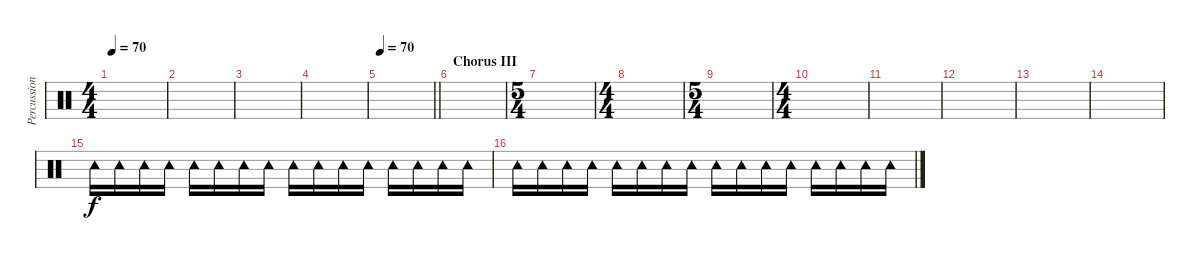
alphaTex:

\track ("Percussion" "Percussion") {instrument percussion}
\staff {score}
\articulation defaults
\ts (4 4)
\tempo 70
\clef neutral
\ks c
|
|
|
|
\tempo 70
\barLineRight lightlight
|
\section ("" "Chorus III")
|
\ts (5 4)
|
\ts (4 4)
|
\ts (5 4)
|
\ts (4 4)
|
|
|
|
|
"Tambourine (hit)".16 "Tambourine (hit)".16 "Tambourine (hit)".16 "Tambourine (hit)".16 "Tambourine (hit)".16 "Tambourine (hit)".16 "Tambourine (hit)".16 "Tambourine (hit)".16 "Tambourine (hit)".16 "Tambourine (hit)".16 "Tambourine (hit)".16 "Tambourine (hit)".16 "Tambourine (hit)".16 "Tambourine (hit)".16 "Tambourine (hit)".16 "Tambourine (hit)".16 |
"Tambourine (hit)".16 "Tambourine (hit)".16 "Tambourine (hit)".16 "Tambourine (hit)".16 "Tambourine (hit)".16 "Tambourine (hit)".16 "Tambourine (hit)".16 "Tambourine (hit)".16 "Tambourine (hit)".16 "Tambourine (hit)".16 "Tambourine (hit)".16 "Tambourine (hit)".16 "Tambourine (hit)".16 "Tambourine (hit)".16 "Tambourine (hit)".16 "Tambourine (hit)".16
